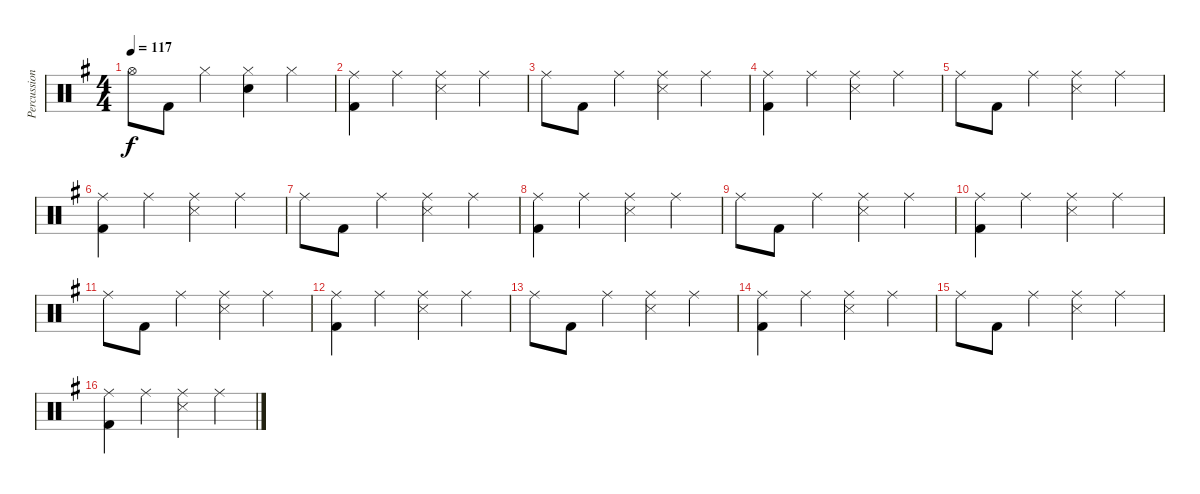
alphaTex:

\track ("Percussion" "Percussion") {instrument percussion}
\staff {score}
\articulation defaults
\ts (4 4)
\tempo 117
\clef neutral
\ks g "Hi-Hat (open)".8{dy f} "Kick (hit) 2".8 "Hi-Hat (closed)".4
("Hi-Hat (closed)" "Electric Snare (hit)").4 "Hi-Hat (closed)".4 |
("Ride (middle)" "Kick (hit) 2").4 "Ride (middle)".4 ("Ride (middle)" "Snare (side stick) 3").4 "Ride (middle)".4 |
"Ride (middle)".8 "Kick (hit) 2".8 "Ride (middle)".4 ("Ride (middle)" "Snare (side stick) 3").4 "Ride (middle)".4 |
("Ride (middle)" "Kick (hit) 2").4 "Ride (middle)".4 ("Ride (middle)" "Snare (side stick) 3").4 "Ride (middle)".4 |
"Ride (middle)".8 "Kick (hit) 2".8 "Ride (middle)".4 ("Ride (middle)" "Snare (side stick) 3").4 "Ride (middle)".4 |
("Ride (middle)" "Kick (hit) 2").4 "Ride (middle)".4 ("Ride (middle)" "Snare (side stick) 3").4 "Ride (middle)".4 |
"Ride (middle)".8 "Kick (hit) 2".8 "Ride (middle)".4 ("Ride (middle)" "Snare (side stick) 3").4 "Ride (middle)".4 |
("Ride (middle)" "Kick (hit) 2").4 "Ride (middle)".4 ("Ride (middle)" "Snare (side stick) 3").4 "Ride (middle)".4 |
"Ride (middle)".8 "Kick (hit) 2".8 "Ride (middle)".4 ("Ride (middle)" "Snare (side stick) 3").4 "Ride (middle)".4 |
("Ride (middle)" "Kick (hit) 2").4 "Ride (middle)".4 ("Ride (middle)" "Snare (side stick) 3").4 "Ride (middle)".4 |
"Ride (middle)".8 "Kick (hit) 2".8 "Ride (middle)".4 ("Ride (middle)" "Snare (side stick) 3").4 "Ride (middle)".4 |
("Ride (middle)" "Kick (hit) 2").4 "Ride (middle)".4 ("Ride (middle)" "Snare (side stick) 3").4 "Ride (middle)".4 |
"Ride (middle)".8 "Kick (hit) 2".8 "Ride (middle)".4 ("Ride (middle)" "Snare (side stick) 3").4 "Ride (middle)".4 |
("Ride (middle)" "Kick (hit) 2").4 "Ride (middle)".4 ("Ride (middle)" "Snare (side stick) 3").4 "Ride (middle)".4 |
"Ride (middle)".8 "Kick (hit) 2".8 "Ride (middle)".4 ("Ride (middle)" "Snare (side stick) 3").4 "Ride (middle)".4 |
("Ride (middle)" "Kick (hit) 2").4 "Ride (middle)".4 ("Ride (middle)" "Snare (side stick) 3").4 "Ride (middle)".4
